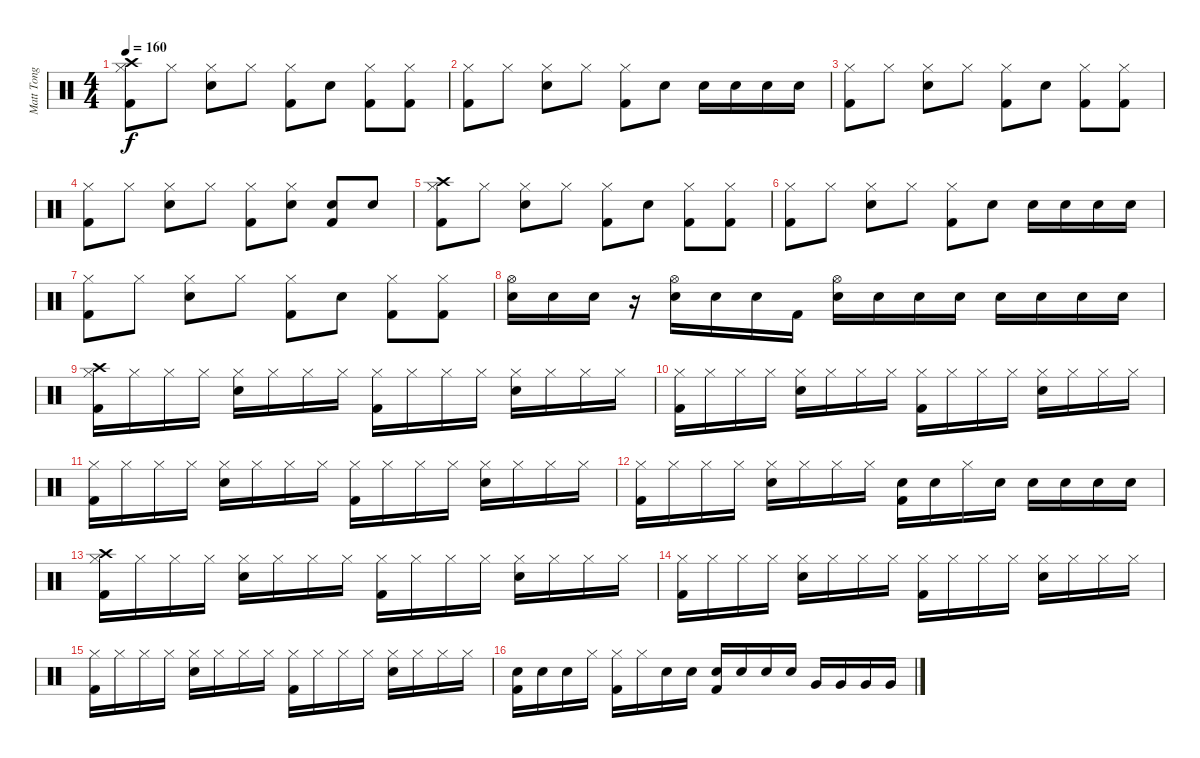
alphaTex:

\track ("Matt Tong" "Matt Tong") {instrument percussion}
\staff {score}
\articulation defaults
\ts (4 4)
\tempo 160
\clef neutral
\ks c
("Crash high (hit)" "Hi-Hat (closed)" "Kick (hit) 2").8{dy f} "Hi-Hat (closed)".8 ("Hi-Hat (closed)" "Electric Snare (hit)").8 "Hi-Hat (closed)".8 ("Hi-Hat (closed)" "Kick (hit) 2").8 "Electric Snare (hit)".8 ("Hi-Hat (closed)" "Kick (hit) 2").8 ("Hi-Hat (closed)" "Kick (hit) 2").8 |
("Hi-Hat (closed)" "Kick (hit) 2").8 "Hi-Hat (closed)".8 ("Hi-Hat (closed)" "Electric Snare (hit)").8 "Hi-Hat (closed)".8 ("Hi-Hat (closed)" "Kick (hit) 2").8 "Electric Snare (hit)".8 "Electric Snare (hit)".16 "Electric Snare (hit)".16 "Electric Snare (hit)".16 "Electric Snare (hit)".16 |
("Hi-Hat (closed)" "Kick (hit) 2").8 "Hi-Hat (closed)".8 ("Hi-Hat (closed)" "Electric Snare (hit)").8 "Hi-Hat (closed)".8 ("Hi-Hat (closed)" "Kick (hit) 2").8 "Electric Snare (hit)".8 ("Hi-Hat (closed)" "Kick (hit) 2").8 ("Hi-Hat (closed)" "Kick (hit) 2").8 |
("Hi-Hat (closed)" "Kick (hit) 2").8 "Hi-Hat (closed)".8 ("Hi-Hat (closed)" "Electric Snare (hit)").8 "Hi-Hat (closed)".8 ("Hi-Hat (closed)" "Kick (hit) 2").8 ("Hi-Hat (closed)" "Electric Snare (hit)").8 ("Electric Snare (hit)" "Kick (hit) 2").8 "Electric Snare (hit)".8 |
("Crash high (hit)" "Hi-Hat (closed)" "Kick (hit) 2").8 "Hi-Hat (closed)".8 ("Hi-Hat (closed)" "Electric Snare (hit)").8 "Hi-Hat (closed)".8 ("Hi-Hat (closed)" "Kick (hit) 2").8 "Electric Snare (hit)".8 ("Hi-Hat (closed)" "Kick (hit) 2").8 ("Hi-Hat (closed)" "Kick (hit) 2").8 |
("Hi-Hat (closed)" "Kick (hit) 2").8 "Hi-Hat (closed)".8 ("Hi-Hat (closed)" "Electric Snare (hit)").8 "Hi-Hat (closed)".8 ("Hi-Hat (closed)" "Kick (hit) 2").8 "Electric Snare (hit)".8 "Electric Snare (hit)".16 "Electric Snare (hit)".16 "Electric Snare (hit)".16 "Electric Snare (hit)".16 |
("Hi-Hat (closed)" "Kick (hit) 2").8 "Hi-Hat (closed)".8 ("Hi-Hat (closed)" "Electric Snare (hit)").8 "Hi-Hat (closed)".8 ("Hi-Hat (closed)" "Kick (hit) 2").8 "Electric Snare (hit)".8 ("Hi-Hat (closed)" "Kick (hit) 2").8 ("Hi-Hat (closed)" "Kick (hit) 2").8 |
("Hi-Hat (open)" "Electric Snare (hit)").16 "Electric Snare (hit)".16 "Electric Snare (hit)".16 r.16 ("Hi-Hat (open)" "Electric Snare (hit)").16 "Electric Snare (hit)".16 "Electric Snare (hit)".16 "Kick (hit) 2".16 ("Hi-Hat (open)" "Electric Snare (hit)").16 "Electric Snare (hit)".16 "Electric Snare (hit)".16 "Electric Snare (hit)".16 "Electric Snare (hit)".16 "Electric Snare (hit)".16 "Electric Snare (hit)".16 "Electric Snare (hit)".16 |
("Crash high (hit)" "Hi-Hat (closed)" "Kick (hit) 2").16 "Hi-Hat (closed)".16 "Hi-Hat (closed)".16 "Hi-Hat (closed)".16 ("Hi-Hat (closed)" "Electric Snare (hit)").16 "Hi-Hat (closed)".16 "Hi-Hat (closed)".16 "Hi-Hat (closed)".16 ("Hi-Hat (closed)" "Kick (hit) 2").16 "Hi-Hat (closed)".16 "Hi-Hat (closed)".16 "Hi-Hat (closed)".16 ("Hi-Hat (closed)" "Electric Snare (hit)").16 "Hi-Hat (closed)".16 "Hi-Hat (closed)".16 "Hi-Hat (closed)".16 |
("Hi-Hat (closed)" "Kick (hit) 2").16 "Hi-Hat (closed)".16 "Hi-Hat (closed)".16 "Hi-Hat (closed)".16 ("Hi-Hat (closed)" "Electric Snare (hit)").16 "Hi-Hat (closed)".16 "Hi-Hat (closed)".16 "Hi-Hat (closed)".16 ("Hi-Hat (closed)" "Kick (hit) 2").16 "Hi-Hat (closed)".16 "Hi-Hat (closed)".16 "Hi-Hat (closed)".16 ("Hi-Hat (closed)" "Electric Snare (hit)").16 "Hi-Hat (closed)".16 "Hi-Hat (closed)".16 "Hi-Hat (closed)".16 |
("Hi-Hat (closed)" "Kick (hit) 2").16 "Hi-Hat (closed)".16 "Hi-Hat (closed)".16 "Hi-Hat (closed)".16 ("Hi-Hat (closed)" "Electric Snare (hit)").16 "Hi-Hat (closed)".16 "Hi-Hat (closed)".16 "Hi-Hat (closed)".16 ("Hi-Hat (closed)" "Kick (hit) 2").16 "Hi-Hat (closed)".16 "Hi-Hat (closed)".16 "Hi-Hat (closed)".16 ("Hi-Hat (closed)" "Electric Snare (hit)").16 "Hi-Hat (closed)".16 "Hi-Hat (closed)".16 "Hi-Hat (closed)".16 |
("Hi-Hat (closed)" "Kick (hit) 2").16 "Hi-Hat (closed)".16 "Hi-Hat (closed)".16 "Hi-Hat (closed)".16 ("Hi-Hat (closed)" "Electric Snare (hit)").16 "Hi-Hat (closed)".16 "Hi-Hat (closed)".16 "Hi-Hat (closed)".16 ("Electric Snare (hit)" "Kick (hit) 2").16 "Electric Snare (hit)".16 "Hi-Hat (closed)".16 "Electric Snare (hit)".16 "Electric Snare (hit)".16 "Electric Snare (hit)".16 "Electric Snare (hit)".16 "Electric Snare (hit)".16 |
("Crash high (hit)" "Hi-Hat (closed)" "Kick (hit) 2").16 "Hi-Hat (closed)".16 "Hi-Hat (closed)".16 "Hi-Hat (closed)".16 ("Hi-Hat (closed)" "Electric Snare (hit)").16 "Hi-Hat (closed)".16 "Hi-Hat (closed)".16 "Hi-Hat (closed)".16 ("Hi-Hat (closed)" "Kick (hit) 2").16 "Hi-Hat (closed)".16 "Hi-Hat (closed)".16 "Hi-Hat (closed)".16 ("Hi-Hat (closed)" "Electric Snare (hit)").16 "Hi-Hat (closed)".16 "Hi-Hat (closed)".16 "Hi-Hat (closed)".16 |
("Hi-Hat (closed)" "Kick (hit) 2").16 "Hi-Hat (closed)".16 "Hi-Hat (closed)".16 "Hi-Hat (closed)".16 ("Hi-Hat (closed)" "Electric Snare (hit)").16 "Hi-Hat (closed)".16 "Hi-Hat (closed)".16 "Hi-Hat (closed)".16 ("Hi-Hat (closed)" "Kick (hit) 2").16 "Hi-Hat (closed)".16 "Hi-Hat (closed)".16 "Hi-Hat (closed)".16 ("Hi-Hat (closed)" "Electric Snare (hit)").16 "Hi-Hat (closed)".16 "Hi-Hat (closed)".16 "Hi-Hat (closed)".16 |
("Hi-Hat (closed)" "Kick (hit) 2").16 "Hi-Hat (closed)".16 "Hi-Hat (closed)".16 "Hi-Hat (closed)".16 ("Hi-Hat (closed)" "Electric Snare (hit)").16 "Hi-Hat (closed)".16 "Hi-Hat (closed)".16 "Hi-Hat (closed)".16 ("Hi-Hat (closed)" "Kick (hit) 2").16 "Hi-Hat (closed)".16 "Hi-Hat (closed)".16 "Hi-Hat (closed)".16 ("Hi-Hat (closed)" "Electric Snare (hit)").16 "Hi-Hat (closed)".16 "Hi-Hat (closed)".16 "Hi-Hat (closed)".16 |
("Electric Snare (hit)" "Kick (hit) 2").16 "Electric Snare (hit)".16 "Electric Snare (hit)".16 "Hi-Hat (closed)".16 ("Hi-Hat (closed)" "Kick (hit) 2").16 "Hi-Hat (closed)".16 "Electric Snare (hit)".16 "Electric Snare (hit)".16 ("Electric Snare (hit)" "Kick (hit) 2").16 "Electric Snare (hit)".16 "Electric Snare (hit)".16 "Electric Snare (hit)".16 "Very Low Tom (hit)".16 "Very Low Tom (hit)".16 "Very Low Tom (hit)".16 "Very Low Tom (hit)".16
